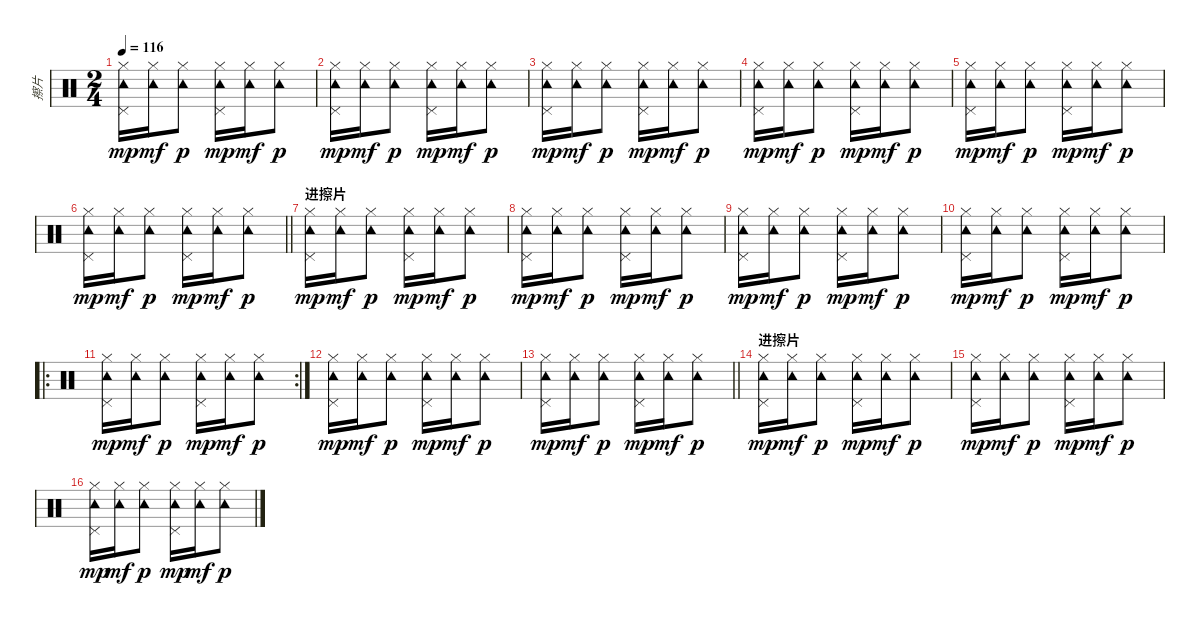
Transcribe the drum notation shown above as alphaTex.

\track ("擦片" "擦片") {instrument percussion}
\staff {score}
\articulation defaults
\ts (2 4)
\tempo 116
\clef neutral
\ks c
("Hi-Hat (closed)" "Tambourine (hit)" "Pedal Hi-Hat (hit)").16{dy mp} ("Hi-Hat (closed)" "Tambourine (hit)").16{dy mf} ("Hi-Hat (closed)" "Tambourine (hit)").8{dy p} ("Hi-Hat (closed)" "Tambourine (hit)" "Pedal Hi-Hat (hit)").16{dy mp} ("Hi-Hat (closed)" "Tambourine (hit)").16{dy mf} ("Hi-Hat (closed)" "Tambourine (hit)").8{dy p} |
("Hi-Hat (closed)" "Tambourine (hit)" "Pedal Hi-Hat (hit)").16{dy mp} ("Hi-Hat (closed)" "Tambourine (hit)").16{dy mf} ("Hi-Hat (closed)" "Tambourine (hit)").8{dy p} ("Hi-Hat (closed)" "Tambourine (hit)" "Pedal Hi-Hat (hit)").16{dy mp} ("Hi-Hat (closed)" "Tambourine (hit)").16{dy mf} ("Hi-Hat (closed)" "Tambourine (hit)").8{dy p} |
("Hi-Hat (closed)" "Tambourine (hit)" "Pedal Hi-Hat (hit)").16{dy mp} ("Hi-Hat (closed)" "Tambourine (hit)").16{dy mf} ("Hi-Hat (closed)" "Tambourine (hit)").8{dy p} ("Hi-Hat (closed)" "Tambourine (hit)" "Pedal Hi-Hat (hit)").16{dy mp} ("Hi-Hat (closed)" "Tambourine (hit)").16{dy mf} ("Hi-Hat (closed)" "Tambourine (hit)").8{dy p} |
("Hi-Hat (closed)" "Tambourine (hit)" "Pedal Hi-Hat (hit)").16{dy mp} ("Hi-Hat (closed)" "Tambourine (hit)").16{dy mf} ("Hi-Hat (closed)" "Tambourine (hit)").8{dy p} ("Hi-Hat (closed)" "Tambourine (hit)" "Pedal Hi-Hat (hit)").16{dy mp} ("Hi-Hat (closed)" "Tambourine (hit)").16{dy mf} ("Hi-Hat (closed)" "Tambourine (hit)").8{dy p} |
("Hi-Hat (closed)" "Tambourine (hit)" "Pedal Hi-Hat (hit)").16{dy mp} ("Hi-Hat (closed)" "Tambourine (hit)").16{dy mf} ("Hi-Hat (closed)" "Tambourine (hit)").8{dy p} ("Hi-Hat (closed)" "Tambourine (hit)" "Pedal Hi-Hat (hit)").16{dy mp} ("Hi-Hat (closed)" "Tambourine (hit)").16{dy mf} ("Hi-Hat (closed)" "Tambourine (hit)").8{dy p} |
\barLineRight lightlight
("Hi-Hat (closed)" "Tambourine (hit)" "Pedal Hi-Hat (hit)").16{dy mp} ("Hi-Hat (closed)" "Tambourine (hit)").16{dy mf} ("Hi-Hat (closed)" "Tambourine (hit)").8{dy p} ("Hi-Hat (closed)" "Tambourine (hit)" "Pedal Hi-Hat (hit)").16{dy mp} ("Hi-Hat (closed)" "Tambourine (hit)").16{dy mf} ("Hi-Hat (closed)" "Tambourine (hit)").8{dy p} |
\section ("" "进擦片")
("Hi-Hat (closed)" "Tambourine (hit)" "Pedal Hi-Hat (hit)").16{dy mp} ("Hi-Hat (closed)" "Tambourine (hit)").16{dy mf} ("Hi-Hat (closed)" "Tambourine (hit)").8{dy p} ("Hi-Hat (closed)" "Tambourine (hit)" "Pedal Hi-Hat (hit)").16{dy mp} ("Hi-Hat (closed)" "Tambourine (hit)").16{dy mf} ("Hi-Hat (closed)" "Tambourine (hit)").8{dy p} |
("Hi-Hat (closed)" "Tambourine (hit)" "Pedal Hi-Hat (hit)").16{dy mp} ("Hi-Hat (closed)" "Tambourine (hit)").16{dy mf} ("Hi-Hat (closed)" "Tambourine (hit)").8{dy p} ("Hi-Hat (closed)" "Tambourine (hit)" "Pedal Hi-Hat (hit)").16{dy mp} ("Hi-Hat (closed)" "Tambourine (hit)").16{dy mf} ("Hi-Hat (closed)" "Tambourine (hit)").8{dy p} |
("Hi-Hat (closed)" "Tambourine (hit)" "Pedal Hi-Hat (hit)").16{dy mp} ("Hi-Hat (closed)" "Tambourine (hit)").16{dy mf} ("Hi-Hat (closed)" "Tambourine (hit)").8{dy p} ("Hi-Hat (closed)" "Tambourine (hit)" "Pedal Hi-Hat (hit)").16{dy mp} ("Hi-Hat (closed)" "Tambourine (hit)").16{dy mf} ("Hi-Hat (closed)" "Tambourine (hit)").8{dy p} |
("Hi-Hat (closed)" "Tambourine (hit)" "Pedal Hi-Hat (hit)").16{dy mp} ("Hi-Hat (closed)" "Tambourine (hit)").16{dy mf} ("Hi-Hat (closed)" "Tambourine (hit)").8{dy p} ("Hi-Hat (closed)" "Tambourine (hit)" "Pedal Hi-Hat (hit)").16{dy mp} ("Hi-Hat (closed)" "Tambourine (hit)").16{dy mf} ("Hi-Hat (closed)" "Tambourine (hit)").8{dy p} |
\ro
\rc 2
("Hi-Hat (closed)" "Tambourine (hit)" "Pedal Hi-Hat (hit)").16{dy mp} ("Hi-Hat (closed)" "Tambourine (hit)").16{dy mf} ("Hi-Hat (closed)" "Tambourine (hit)").8{dy p} ("Hi-Hat (closed)" "Tambourine (hit)" "Pedal Hi-Hat (hit)").16{dy mp} ("Hi-Hat (closed)" "Tambourine (hit)").16{dy mf} ("Hi-Hat (closed)" "Tambourine (hit)").8{dy p} |
("Hi-Hat (closed)" "Tambourine (hit)" "Pedal Hi-Hat (hit)").16{dy mp} ("Hi-Hat (closed)" "Tambourine (hit)").16{dy mf} ("Hi-Hat (closed)" "Tambourine (hit)").8{dy p} ("Hi-Hat (closed)" "Tambourine (hit)" "Pedal Hi-Hat (hit)").16{dy mp} ("Hi-Hat (closed)" "Tambourine (hit)").16{dy mf} ("Hi-Hat (closed)" "Tambourine (hit)").8{dy p} |
\barLineRight lightlight
("Hi-Hat (closed)" "Tambourine (hit)" "Pedal Hi-Hat (hit)").16{dy mp} ("Hi-Hat (closed)" "Tambourine (hit)").16{dy mf} ("Hi-Hat (closed)" "Tambourine (hit)").8{dy p} ("Hi-Hat (closed)" "Tambourine (hit)" "Pedal Hi-Hat (hit)").16{dy mp} ("Hi-Hat (closed)" "Tambourine (hit)").16{dy mf} ("Hi-Hat (closed)" "Tambourine (hit)").8{dy p} |
\section ("" "进擦片")
("Hi-Hat (closed)" "Tambourine (hit)" "Pedal Hi-Hat (hit)").16{dy mp} ("Hi-Hat (closed)" "Tambourine (hit)").16{dy mf} ("Hi-Hat (closed)" "Tambourine (hit)").8{dy p} ("Hi-Hat (closed)" "Tambourine (hit)" "Pedal Hi-Hat (hit)").16{dy mp} ("Hi-Hat (closed)" "Tambourine (hit)").16{dy mf} ("Hi-Hat (closed)" "Tambourine (hit)").8{dy p} |
("Hi-Hat (closed)" "Tambourine (hit)" "Pedal Hi-Hat (hit)").16{dy mp} ("Hi-Hat (closed)" "Tambourine (hit)").16{dy mf} ("Hi-Hat (closed)" "Tambourine (hit)").8{dy p} ("Hi-Hat (closed)" "Tambourine (hit)" "Pedal Hi-Hat (hit)").16{dy mp} ("Hi-Hat (closed)" "Tambourine (hit)").16{dy mf} ("Hi-Hat (closed)" "Tambourine (hit)").8{dy p} |
("Hi-Hat (closed)" "Tambourine (hit)" "Pedal Hi-Hat (hit)").16{dy mp} ("Hi-Hat (closed)" "Tambourine (hit)").16{dy mf} ("Hi-Hat (closed)" "Tambourine (hit)").8{dy p} ("Hi-Hat (closed)" "Tambourine (hit)" "Pedal Hi-Hat (hit)").16{dy mp} ("Hi-Hat (closed)" "Tambourine (hit)").16{dy mf} ("Hi-Hat (closed)" "Tambourine (hit)").8{dy p}
